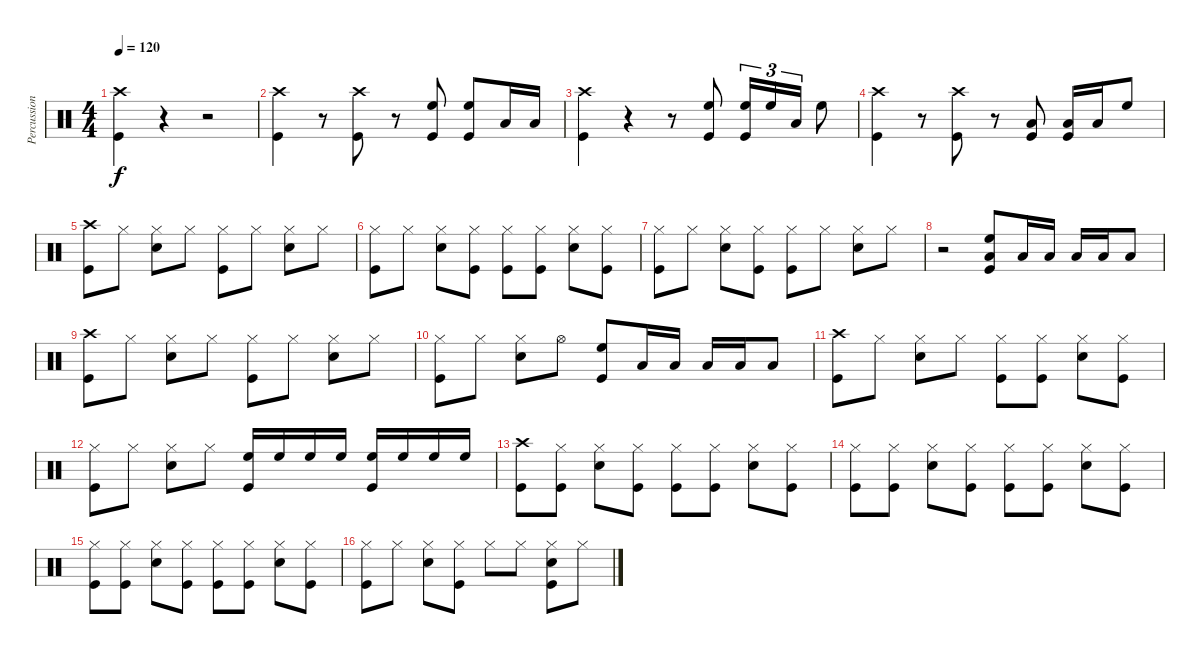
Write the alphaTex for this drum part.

\track ("Percussion" "Percussion") {instrument percussion}
\staff {score}
\articulation defaults
\ts (4 4)
\tempo 120
\clef neutral
\ks c
("Crash high (hit)" "Kick (hit)").4{dy f} r.4 r.2 |
("Crash high (hit)" "Kick (hit)").4 r.8 ("Crash high (hit)" "Kick (hit)").8 r.8 ("High Floor Tom (hit)" "Kick (hit)").8 ("High Floor Tom (hit)" "Kick (hit)").8 "Low Floor Tom (hit)".16 "Low Floor Tom (hit)".16 |
("Crash high (hit)" "Kick (hit)").4 r.4 r.8 ("High Floor Tom (hit)" "Kick (hit)").8 ("High Floor Tom (hit)" "Kick (hit)").16{tu (3 2)} "High Floor Tom (hit)".16{tu (3 2)} "Low Floor Tom (hit)".16{tu (3 2)} "High Floor Tom (hit)".8 |
("Crash high (hit)" "Kick (hit)").4 r.8 ("Crash high (hit)" "Kick (hit)").8 r.8 ("Low Floor Tom (hit)" "Kick (hit)").8 ("Low Floor Tom (hit)" "Kick (hit)").16 "Low Floor Tom (hit)".16 "High Floor Tom (hit)".8 |
("Crash high (hit)" "Kick (hit)").8 "Hi-Hat (closed)".8 ("Hi-Hat (closed)" "Snare (hit) 2").8 "Hi-Hat (closed)".8 ("Hi-Hat (closed)" "Kick (hit)").8 "Hi-Hat (closed)".8 ("Hi-Hat (closed)" "Snare (hit) 2").8 "Hi-Hat (closed)".8 |
("Hi-Hat (closed)" "Kick (hit)").8 "Hi-Hat (closed)".8 ("Hi-Hat (closed)" "Snare (hit) 2").8 ("Hi-Hat (closed)" "Kick (hit)").8 ("Hi-Hat (closed)" "Kick (hit)").8 ("Hi-Hat (closed)" "Kick (hit)").8 ("Hi-Hat (closed)" "Snare (hit) 2").8 ("Hi-Hat (closed)" "Kick (hit)").8 |
("Hi-Hat (closed)" "Kick (hit)").8 "Hi-Hat (closed)".8 ("Hi-Hat (closed)" "Snare (hit) 2").8 ("Hi-Hat (closed)" "Kick (hit)").8 ("Hi-Hat (closed)" "Kick (hit)").8 "Hi-Hat (closed)".8 ("Hi-Hat (closed)" "Snare (hit) 2").8 "Hi-Hat (closed)".8 |
r.2 ("High Floor Tom (hit)" "Low Floor Tom (hit)" "Kick (hit)").8 "Low Floor Tom (hit)".16 "Low Floor Tom (hit)".16 "Low Floor Tom (hit)".16 "Low Floor Tom (hit)".16 "Low Floor Tom (hit)".8 |
("Crash high (hit)" "Kick (hit)").8 "Hi-Hat (closed)".8 ("Hi-Hat (closed)" "Snare (hit) 2").8 "Hi-Hat (closed)".8 ("Hi-Hat (closed)" "Kick (hit)").8 "Hi-Hat (closed)".8 ("Hi-Hat (closed)" "Snare (hit) 2").8 "Hi-Hat (closed)".8 |
("Hi-Hat (closed)" "Kick (hit)").8 "Hi-Hat (closed)".8 ("Hi-Hat (closed)" "Snare (hit) 2").8 "Hi-Hat (open)".8 ("High Floor Tom (hit)" "Kick (hit)").8 "Low Floor Tom (hit)".16 "Low Floor Tom (hit)".16 "Low Floor Tom (hit)".16 "Low Floor Tom (hit)".16 "Low Floor Tom (hit)".8 |
("Crash high (hit)" "Kick (hit)").8 "Hi-Hat (closed)".8 ("Hi-Hat (closed)" "Snare (hit) 2").8 "Hi-Hat (closed)".8 ("Hi-Hat (closed)" "Kick (hit)").8 ("Hi-Hat (closed)" "Kick (hit)").8 ("Hi-Hat (closed)" "Snare (hit) 2").8 ("Hi-Hat (closed)" "Kick (hit)").8 |
("Hi-Hat (closed)" "Kick (hit)").8 "Hi-Hat (closed)".8 ("Hi-Hat (closed)" "Snare (hit) 2").8 "Hi-Hat (closed)".8 ("High Floor Tom (hit)" "Kick (hit)").16 "High Floor Tom (hit)".16 "High Floor Tom (hit)".16 "High Floor Tom (hit)".16 ("High Floor Tom (hit)" "Kick (hit)").16 "High Floor Tom (hit)".16 "High Floor Tom (hit)".16 "High Floor Tom (hit)".16 |
("Crash high (hit)" "Kick (hit)").8 ("Hi-Hat (closed)" "Kick (hit)").8 ("Hi-Hat (closed)" "Snare (hit) 2").8 ("Hi-Hat (closed)" "Kick (hit)").8 ("Hi-Hat (closed)" "Kick (hit)").8 ("Hi-Hat (closed)" "Kick (hit)").8 ("Hi-Hat (closed)" "Snare (hit) 2").8 ("Hi-Hat (closed)" "Kick (hit)").8 |
("Hi-Hat (closed)" "Kick (hit)").8 ("Hi-Hat (closed)" "Kick (hit)").8 ("Hi-Hat (closed)" "Snare (hit) 2").8 ("Hi-Hat (closed)" "Kick (hit)").8 ("Hi-Hat (closed)" "Kick (hit)").8 ("Hi-Hat (closed)" "Kick (hit)").8 ("Hi-Hat (closed)" "Snare (hit) 2").8 ("Hi-Hat (closed)" "Kick (hit)").8 |
("Hi-Hat (closed)" "Kick (hit)").8 ("Hi-Hat (closed)" "Kick (hit)").8 ("Hi-Hat (closed)" "Snare (hit) 2").8 ("Hi-Hat (closed)" "Kick (hit)").8 ("Hi-Hat (closed)" "Kick (hit)").8 ("Hi-Hat (closed)" "Kick (hit)").8 ("Hi-Hat (closed)" "Snare (hit) 2").8 ("Hi-Hat (closed)" "Kick (hit)").8 |
("Hi-Hat (closed)" "Kick (hit)").8 "Hi-Hat (closed)".8 ("Hi-Hat (closed)" "Snare (hit) 2").8 ("Hi-Hat (closed)" "Kick (hit)").8 "Hi-Hat (closed)".8 "Hi-Hat (closed)".8 ("Hi-Hat (closed)" "Snare (hit) 2" "Kick (hit)").8 "Hi-Hat (closed)".8
